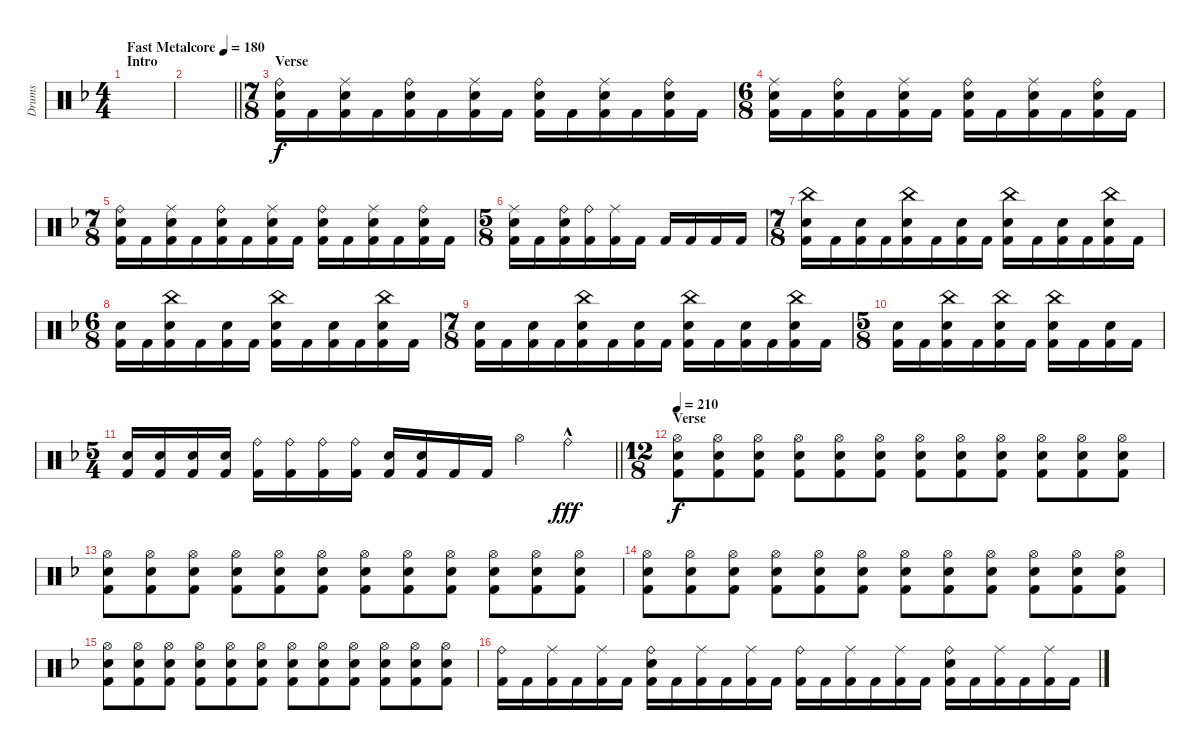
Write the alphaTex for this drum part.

\track ("Drums" "Drums") {instrument percussion}
\staff {score}
\articulation defaults
\ts (4 4)
\section ("" "Intro")
\tempo (180 "Fast Metalcore")
\clef neutral
\ks dminor
|
\barLineRight lightlight
|
\ts (7 8)
\section ("" "Verse")
("Ride (bell)" "Electric Snare (hit)" "Kick (hit) 2").16 "Kick (hit) 2".16 ("Ride (middle)" "Electric Snare (hit)" "Kick (hit) 2").16 "Kick (hit) 2".16 ("Ride (bell)" "Electric Snare (hit)" "Kick (hit) 2").16 "Kick (hit) 2".16 ("Ride (middle)" "Electric Snare (hit)" "Kick (hit) 2").16 "Kick (hit) 2".16 ("Ride (bell)" "Electric Snare (hit)" "Kick (hit) 2").16 "Kick (hit) 2".16 ("Ride (middle)" "Electric Snare (hit)" "Kick (hit) 2").16 "Kick (hit) 2".16 ("Ride (bell)" "Electric Snare (hit)" "Kick (hit) 2").16 "Kick (hit) 2".16 |
\ts (6 8)
("Ride (middle)" "Electric Snare (hit)" "Kick (hit) 2").16 "Kick (hit) 2".16 ("Ride (bell)" "Electric Snare (hit)" "Kick (hit) 2").16 "Kick (hit) 2".16 ("Ride (middle)" "Electric Snare (hit)" "Kick (hit) 2").16 "Kick (hit) 2".16 ("Ride (bell)" "Electric Snare (hit)" "Kick (hit) 2").16 "Kick (hit) 2".16 ("Ride (middle)" "Electric Snare (hit)" "Kick (hit) 2").16 "Kick (hit) 2".16 ("Ride (bell)" "Electric Snare (hit)" "Kick (hit) 2").16 "Kick (hit) 2".16 |
\ts (7 8)
("Ride (bell)" "Electric Snare (hit)" "Kick (hit) 2").16 "Kick (hit) 2".16 ("Ride (middle)" "Electric Snare (hit)" "Kick (hit) 2").16 "Kick (hit) 2".16 ("Ride (bell)" "Electric Snare (hit)" "Kick (hit) 2").16 "Kick (hit) 2".16 ("Ride (middle)" "Electric Snare (hit)" "Kick (hit) 2").16 "Kick (hit) 2".16 ("Ride (bell)" "Electric Snare (hit)" "Kick (hit) 2").16 "Kick (hit) 2".16 ("Ride (middle)" "Electric Snare (hit)" "Kick (hit) 2").16 "Kick (hit) 2".16 ("Ride (bell)" "Electric Snare (hit)" "Kick (hit) 2").16 "Kick (hit) 2".16 |
\ts (5 8)
("Ride (middle)" "Electric Snare (hit)" "Kick (hit) 2").16 "Kick (hit) 2".16 ("Ride (bell)" "Electric Snare (hit)" "Kick (hit) 2").16 ("Ride (bell)" "Kick (hit) 2").16 ("Ride (middle)" "Kick (hit) 2").16 "Kick (hit) 2".16 "Kick (hit) 2".16 "Kick (hit) 2".16 "Kick (hit) 2".16 "Kick (hit) 2".16 |
\ts (7 8)
("China (hit)" "Electric Snare (hit)" "Kick (hit) 2").16 "Kick (hit) 2".16 ("Electric Snare (hit)" "Kick (hit) 2").16 "Kick (hit) 2".16 ("China (hit)" "Electric Snare (hit)" "Kick (hit) 2").16 "Kick (hit) 2".16 ("Electric Snare (hit)" "Kick (hit) 2").16 "Kick (hit) 2".16 ("China (hit)" "Electric Snare (hit)" "Kick (hit) 2").16 "Kick (hit) 2".16 ("Electric Snare (hit)" "Kick (hit) 2").16 "Kick (hit) 2".16 ("China (hit)" "Electric Snare (hit)" "Kick (hit) 2").16 "Kick (hit) 2".16 |
\ts (6 8)
("Electric Snare (hit)" "Kick (hit) 2").16 "Kick (hit) 2".16 ("China (hit)" "Electric Snare (hit)" "Kick (hit) 2").16 "Kick (hit) 2".16 ("Electric Snare (hit)" "Kick (hit) 2").16 "Kick (hit) 2".16 ("China (hit)" "Electric Snare (hit)" "Kick (hit) 2").16 "Kick (hit) 2".16 ("Electric Snare (hit)" "Kick (hit) 2").16 "Kick (hit) 2".16 ("China (hit)" "Electric Snare (hit)" "Kick (hit) 2").16 "Kick (hit) 2".16 |
\ts (7 8)
("Electric Snare (hit)" "Kick (hit) 2").16 "Kick (hit) 2".16 ("Electric Snare (hit)" "Kick (hit) 2").16 "Kick (hit) 2".16 ("China (hit)" "Electric Snare (hit)" "Kick (hit) 2").16 "Kick (hit) 2".16 ("Electric Snare (hit)" "Kick (hit) 2").16 "Kick (hit) 2".16 ("China (hit)" "Electric Snare (hit)" "Kick (hit) 2").16 "Kick (hit) 2".16 ("Electric Snare (hit)" "Kick (hit) 2").16 "Kick (hit) 2".16 ("China (hit)" "Electric Snare (hit)" "Kick (hit) 2").16 "Kick (hit) 2".16 |
\ts (5 8)
("Electric Snare (hit)" "Kick (hit) 2").16 "Kick (hit) 2".16 ("China (hit)" "Electric Snare (hit)" "Kick (hit) 2").16 "Kick (hit) 2".16 ("China (hit)" "Electric Snare (hit)" "Kick (hit) 2").16 "Kick (hit) 2".16 ("China (hit)" "Electric Snare (hit)" "Kick (hit) 2").16 "Kick (hit) 2".16 ("Electric Snare (hit)" "Kick (hit) 2").16 "Kick (hit) 2".16 |
\ts (5 4)
\barLineRight lightlight
("Electric Snare (hit)" "Kick (hit) 2").16 ("Electric Snare (hit)" "Kick (hit) 2").16 ("Electric Snare (hit)" "Kick (hit) 2").16 ("Electric Snare (hit)" "Kick (hit) 2").16 ("Ride (bell)" "Kick (hit) 2").16 ("Ride (bell)" "Kick (hit) 2").16 ("Ride (bell)" "Kick (hit) 2").16 ("Ride (bell)" "Kick (hit) 2").16 ("Electric Snare (hit)" "Kick (hit) 2").16 ("Electric Snare (hit)" "Kick (hit) 2").16 "Kick (hit) 2".16 "Kick (hit) 2".16 "Hi-Hat (open)".4 "Ride (bell)"{hac}.4{dy fff} |
\ts (12 8)
\section ("" "Verse")
\tempo 210
("Hi-Hat (open)" "Electric Snare (hit)" "Kick (hit) 2").8{dy f} ("Hi-Hat (open)" "Electric Snare (hit)" "Kick (hit) 2").8 ("Hi-Hat (open)" "Electric Snare (hit)" "Kick (hit) 2").8 ("Hi-Hat (open)" "Electric Snare (hit)" "Kick (hit) 2").8 ("Hi-Hat (open)" "Electric Snare (hit)" "Kick (hit) 2").8 ("Hi-Hat (open)" "Electric Snare (hit)" "Kick (hit) 2").8 ("Hi-Hat (open)" "Electric Snare (hit)" "Kick (hit) 2").8 ("Hi-Hat (open)" "Electric Snare (hit)" "Kick (hit) 2").8 ("Hi-Hat (open)" "Electric Snare (hit)" "Kick (hit) 2").8 ("Hi-Hat (open)" "Electric Snare (hit)" "Kick (hit) 2").8 ("Hi-Hat (open)" "Electric Snare (hit)" "Kick (hit) 2").8 ("Hi-Hat (open)" "Electric Snare (hit)" "Kick (hit) 2").8 |
("Hi-Hat (open)" "Electric Snare (hit)" "Kick (hit) 2").8 ("Hi-Hat (open)" "Electric Snare (hit)" "Kick (hit) 2").8 ("Hi-Hat (open)" "Electric Snare (hit)" "Kick (hit) 2").8 ("Hi-Hat (open)" "Electric Snare (hit)" "Kick (hit) 2").8 ("Hi-Hat (open)" "Electric Snare (hit)" "Kick (hit) 2").8 ("Hi-Hat (open)" "Electric Snare (hit)" "Kick (hit) 2").8 ("Hi-Hat (open)" "Electric Snare (hit)" "Kick (hit) 2").8 ("Hi-Hat (open)" "Electric Snare (hit)" "Kick (hit) 2").8 ("Hi-Hat (open)" "Electric Snare (hit)" "Kick (hit) 2").8 ("Hi-Hat (open)" "Electric Snare (hit)" "Kick (hit) 2").8 ("Hi-Hat (open)" "Electric Snare (hit)" "Kick (hit) 2").8 ("Hi-Hat (open)" "Electric Snare (hit)" "Kick (hit) 2").8 |
("Hi-Hat (open)" "Electric Snare (hit)" "Kick (hit) 2").8 ("Hi-Hat (open)" "Electric Snare (hit)" "Kick (hit) 2").8 ("Hi-Hat (open)" "Electric Snare (hit)" "Kick (hit) 2").8 ("Hi-Hat (open)" "Electric Snare (hit)" "Kick (hit) 2").8 ("Hi-Hat (open)" "Electric Snare (hit)" "Kick (hit) 2").8 ("Hi-Hat (open)" "Electric Snare (hit)" "Kick (hit) 2").8 ("Hi-Hat (open)" "Electric Snare (hit)" "Kick (hit) 2").8 ("Hi-Hat (open)" "Electric Snare (hit)" "Kick (hit) 2").8 ("Hi-Hat (open)" "Electric Snare (hit)" "Kick (hit) 2").8 ("Hi-Hat (open)" "Electric Snare (hit)" "Kick (hit) 2").8 ("Hi-Hat (open)" "Electric Snare (hit)" "Kick (hit) 2").8 ("Hi-Hat (open)" "Electric Snare (hit)" "Kick (hit) 2").8 |
("Hi-Hat (open)" "Electric Snare (hit)" "Kick (hit) 2").8 ("Hi-Hat (open)" "Electric Snare (hit)" "Kick (hit) 2").8 ("Hi-Hat (open)" "Electric Snare (hit)" "Kick (hit) 2").8 ("Hi-Hat (open)" "Electric Snare (hit)" "Kick (hit) 2").8 ("Hi-Hat (open)" "Electric Snare (hit)" "Kick (hit) 2").8 ("Hi-Hat (open)" "Electric Snare (hit)" "Kick (hit) 2").8 ("Hi-Hat (open)" "Electric Snare (hit)" "Kick (hit) 2").8 ("Hi-Hat (open)" "Electric Snare (hit)" "Kick (hit) 2").8 ("Hi-Hat (open)" "Electric Snare (hit)" "Kick (hit) 2").8 ("Hi-Hat (open)" "Electric Snare (hit)" "Kick (hit) 2").8 ("Hi-Hat (open)" "Electric Snare (hit)" "Kick (hit) 2").8 ("Hi-Hat (open)" "Electric Snare (hit)" "Kick (hit) 2").8 |
("Ride (bell)" "Kick (hit) 2").16 "Kick (hit) 2".16 ("Ride (middle)" "Kick (hit) 2").16 "Kick (hit) 2".16 ("Ride (middle)" "Kick (hit) 2").16 "Kick (hit) 2".16 ("Ride (bell)" "Electric Snare (hit)" "Kick (hit) 2").16 "Kick (hit) 2".16 ("Ride (middle)" "Kick (hit) 2").16 "Kick (hit) 2".16 ("Ride (middle)" "Kick (hit) 2").16 "Kick (hit) 2".16 ("Ride (bell)" "Kick (hit) 2").16 "Kick (hit) 2".16 ("Ride (middle)" "Kick (hit) 2").16 "Kick (hit) 2".16 ("Ride (middle)" "Kick (hit) 2").16 "Kick (hit) 2".16 ("Ride (bell)" "Electric Snare (hit)" "Kick (hit) 2").16 "Kick (hit) 2".16 ("Ride (middle)" "Kick (hit) 2").16 "Kick (hit) 2".16 ("Ride (middle)" "Kick (hit) 2").16 "Kick (hit) 2".16
